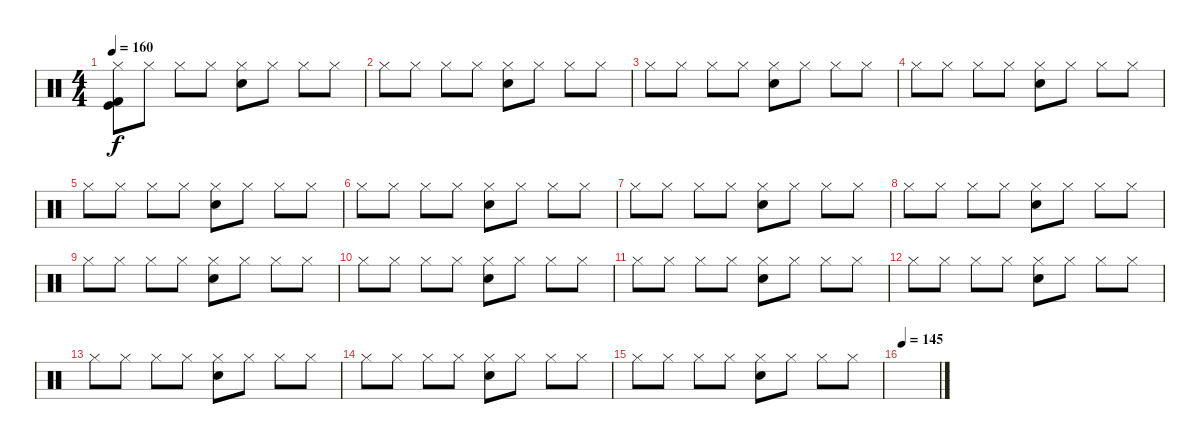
\track "" {instrument percussion}
\staff {score}
\articulation defaults
\ts (4 4)
\tempo 160
\clef neutral
\ks c
("Kick (hit) 2" "Hi-Hat (closed)" "Kick (hit)").8{dy f} "Hi-Hat (closed)".8 "Hi-Hat (closed)".8 "Hi-Hat (closed)".8 ("Hi-Hat (closed)" "Electric Snare (hit)").8 "Hi-Hat (closed)".8 "Hi-Hat (closed)".8 "Hi-Hat (closed)".8 |
"Hi-Hat (closed)".8 "Hi-Hat (closed)".8 "Hi-Hat (closed)".8 "Hi-Hat (closed)".8 ("Hi-Hat (closed)" "Electric Snare (hit)").8 "Hi-Hat (closed)".8 "Hi-Hat (closed)".8 "Hi-Hat (closed)".8 |
"Hi-Hat (closed)".8 "Hi-Hat (closed)".8 "Hi-Hat (closed)".8 "Hi-Hat (closed)".8 ("Hi-Hat (closed)" "Electric Snare (hit)").8 "Hi-Hat (closed)".8 "Hi-Hat (closed)".8 "Hi-Hat (closed)".8 |
"Hi-Hat (closed)".8 "Hi-Hat (closed)".8 "Hi-Hat (closed)".8 "Hi-Hat (closed)".8 ("Hi-Hat (closed)" "Electric Snare (hit)").8 "Hi-Hat (closed)".8 "Hi-Hat (closed)".8 "Hi-Hat (closed)".8 |
"Hi-Hat (closed)".8 "Hi-Hat (closed)".8 "Hi-Hat (closed)".8 "Hi-Hat (closed)".8 ("Hi-Hat (closed)" "Electric Snare (hit)").8 "Hi-Hat (closed)".8 "Hi-Hat (closed)".8 "Hi-Hat (closed)".8 |
"Hi-Hat (closed)".8 "Hi-Hat (closed)".8 "Hi-Hat (closed)".8 "Hi-Hat (closed)".8 ("Hi-Hat (closed)" "Electric Snare (hit)").8 "Hi-Hat (closed)".8 "Hi-Hat (closed)".8 "Hi-Hat (closed)".8 |
"Hi-Hat (closed)".8 "Hi-Hat (closed)".8 "Hi-Hat (closed)".8 "Hi-Hat (closed)".8 ("Hi-Hat (closed)" "Electric Snare (hit)").8 "Hi-Hat (closed)".8 "Hi-Hat (closed)".8 "Hi-Hat (closed)".8 |
"Hi-Hat (closed)".8 "Hi-Hat (closed)".8 "Hi-Hat (closed)".8 "Hi-Hat (closed)".8 ("Hi-Hat (closed)" "Electric Snare (hit)").8 "Hi-Hat (closed)".8 "Hi-Hat (closed)".8 "Hi-Hat (closed)".8 |
"Hi-Hat (closed)".8 "Hi-Hat (closed)".8 "Hi-Hat (closed)".8 "Hi-Hat (closed)".8 ("Hi-Hat (closed)" "Electric Snare (hit)").8 "Hi-Hat (closed)".8 "Hi-Hat (closed)".8 "Hi-Hat (closed)".8 |
"Hi-Hat (closed)".8 "Hi-Hat (closed)".8 "Hi-Hat (closed)".8 "Hi-Hat (closed)".8 ("Hi-Hat (closed)" "Electric Snare (hit)").8 "Hi-Hat (closed)".8 "Hi-Hat (closed)".8 "Hi-Hat (closed)".8 |
"Hi-Hat (closed)".8 "Hi-Hat (closed)".8 "Hi-Hat (closed)".8 "Hi-Hat (closed)".8 ("Hi-Hat (closed)" "Electric Snare (hit)").8 "Hi-Hat (closed)".8 "Hi-Hat (closed)".8 "Hi-Hat (closed)".8 |
"Hi-Hat (closed)".8 "Hi-Hat (closed)".8 "Hi-Hat (closed)".8 "Hi-Hat (closed)".8 ("Hi-Hat (closed)" "Electric Snare (hit)").8 "Hi-Hat (closed)".8 "Hi-Hat (closed)".8 "Hi-Hat (closed)".8 |
"Hi-Hat (closed)".8 "Hi-Hat (closed)".8 "Hi-Hat (closed)".8 "Hi-Hat (closed)".8 ("Hi-Hat (closed)" "Electric Snare (hit)").8 "Hi-Hat (closed)".8 "Hi-Hat (closed)".8 "Hi-Hat (closed)".8 |
"Hi-Hat (closed)".8 "Hi-Hat (closed)".8 "Hi-Hat (closed)".8 "Hi-Hat (closed)".8 ("Hi-Hat (closed)" "Electric Snare (hit)").8 "Hi-Hat (closed)".8 "Hi-Hat (closed)".8 "Hi-Hat (closed)".8 |
"Hi-Hat (closed)".8 "Hi-Hat (closed)".8 "Hi-Hat (closed)".8 "Hi-Hat (closed)".8 ("Hi-Hat (closed)" "Electric Snare (hit)").8 "Hi-Hat (closed)".8 "Hi-Hat (closed)".8 "Hi-Hat (closed)".8 |
\tempo 145
